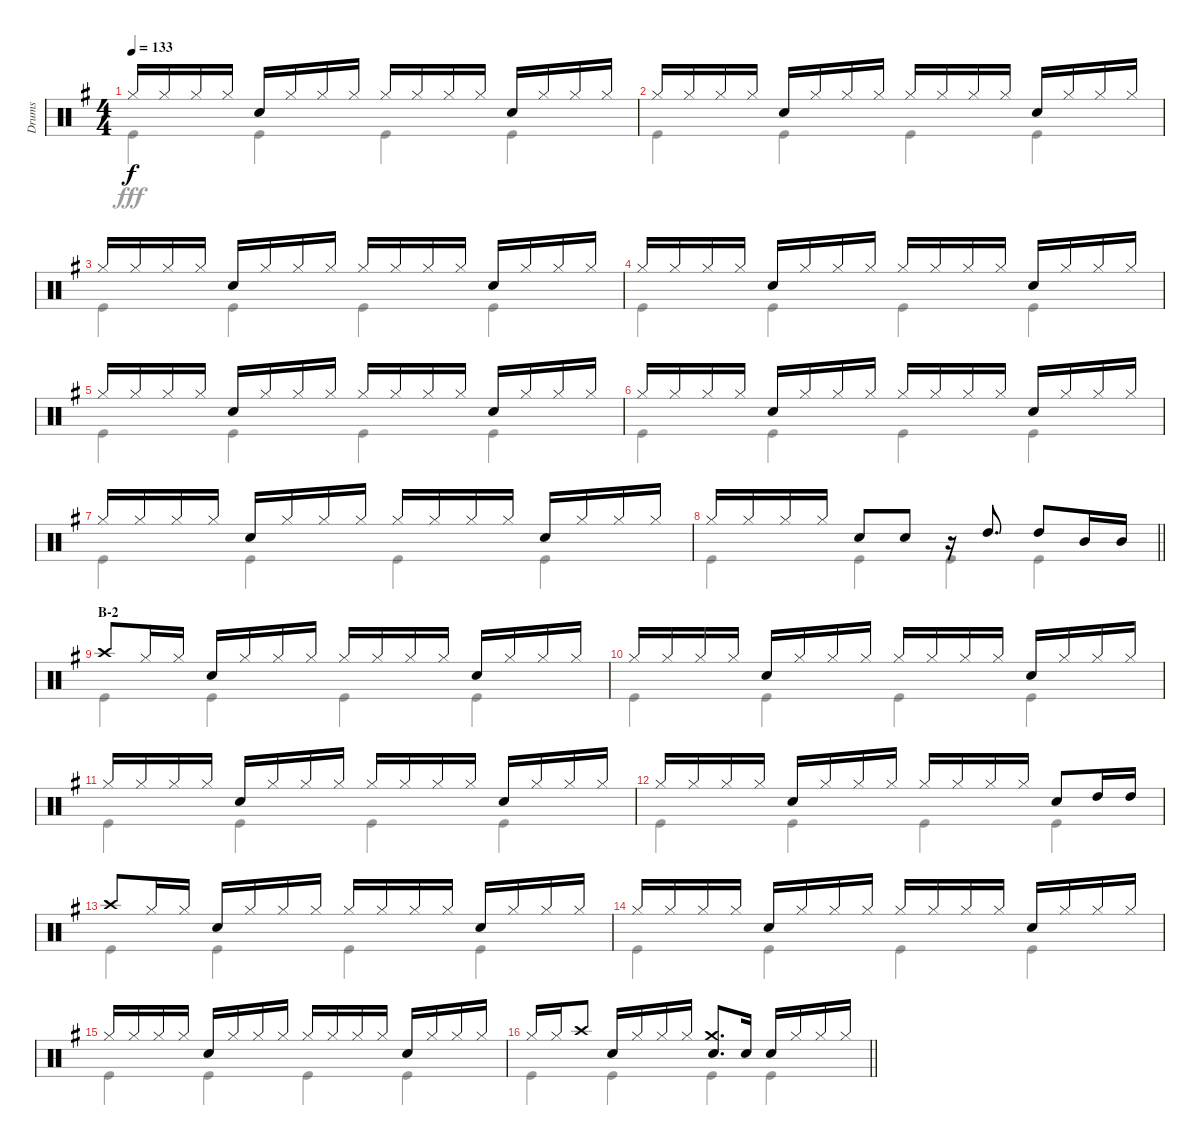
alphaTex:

\track ("Drums" "Drums") {instrument percussion}
\staff {score}
\articulation defaults
\voice
\ts (4 4)
\tempo 133
\clef neutral
\ks g "Hi-Hat (closed)".16{dy f} "Hi-Hat (closed)".16 "Hi-Hat (closed)".16 "Hi-Hat (closed)".16 "Snare (hit) 2".16 "Hi-Hat (closed)".16 "Hi-Hat (closed)".16 "Hi-Hat (closed)".16 "Hi-Hat (closed)".16 "Hi-Hat (closed)".16 "Hi-Hat (closed)".16 "Hi-Hat (closed)".16 "Snare (hit) 2".16 "Hi-Hat (closed)".16 "Hi-Hat (closed)".16 "Hi-Hat (closed)".16
|
"Hi-Hat (closed)".16 "Hi-Hat (closed)".16 "Hi-Hat (closed)".16 "Hi-Hat (closed)".16 "Snare (hit) 2".16 "Hi-Hat (closed)".16 "Hi-Hat (closed)".16 "Hi-Hat (closed)".16 "Hi-Hat (closed)".16 "Hi-Hat (closed)".16 "Hi-Hat (closed)".16 "Hi-Hat (closed)".16 "Snare (hit) 2".16 "Hi-Hat (closed)".16 "Hi-Hat (closed)".16 "Hi-Hat (closed)".16 |
"Hi-Hat (closed)".16 "Hi-Hat (closed)".16 "Hi-Hat (closed)".16 "Hi-Hat (closed)".16 "Snare (hit) 2".16 "Hi-Hat (closed)".16 "Hi-Hat (closed)".16 "Hi-Hat (closed)".16 "Hi-Hat (closed)".16 "Hi-Hat (closed)".16 "Hi-Hat (closed)".16 "Hi-Hat (closed)".16 "Snare (hit) 2".16 "Hi-Hat (closed)".16 "Hi-Hat (closed)".16 "Hi-Hat (closed)".16 |
"Hi-Hat (closed)".16 "Hi-Hat (closed)".16 "Hi-Hat (closed)".16 "Hi-Hat (closed)".16 "Snare (hit) 2".16 "Hi-Hat (closed)".16 "Hi-Hat (closed)".16 "Hi-Hat (closed)".16 "Hi-Hat (closed)".16 "Hi-Hat (closed)".16 "Hi-Hat (closed)".16 "Hi-Hat (closed)".16 "Snare (hit) 2".16 "Hi-Hat (closed)".16 "Hi-Hat (closed)".16 "Hi-Hat (closed)".16 |
"Hi-Hat (closed)".16 "Hi-Hat (closed)".16 "Hi-Hat (closed)".16 "Hi-Hat (closed)".16 "Snare (hit) 2".16 "Hi-Hat (closed)".16 "Hi-Hat (closed)".16 "Hi-Hat (closed)".16 "Hi-Hat (closed)".16 "Hi-Hat (closed)".16 "Hi-Hat (closed)".16 "Hi-Hat (closed)".16 "Snare (hit) 2".16 "Hi-Hat (closed)".16 "Hi-Hat (closed)".16 "Hi-Hat (closed)".16 |
"Hi-Hat (closed)".16 "Hi-Hat (closed)".16 "Hi-Hat (closed)".16 "Hi-Hat (closed)".16 "Snare (hit) 2".16 "Hi-Hat (closed)".16 "Hi-Hat (closed)".16 "Hi-Hat (closed)".16 "Hi-Hat (closed)".16 "Hi-Hat (closed)".16 "Hi-Hat (closed)".16 "Hi-Hat (closed)".16 "Snare (hit) 2".16 "Hi-Hat (closed)".16 "Hi-Hat (closed)".16 "Hi-Hat (closed)".16 |
"Hi-Hat (closed)".16 "Hi-Hat (closed)".16 "Hi-Hat (closed)".16 "Hi-Hat (closed)".16 "Snare (hit) 2".16 "Hi-Hat (closed)".16 "Hi-Hat (closed)".16 "Hi-Hat (closed)".16 "Hi-Hat (closed)".16 "Hi-Hat (closed)".16 "Hi-Hat (closed)".16 "Hi-Hat (closed)".16 "Snare (hit) 2".16 "Hi-Hat (closed)".16 "Hi-Hat (closed)".16 "Hi-Hat (closed)".16 |
\barLineRight lightlight "Hi-Hat (closed)".16 "Hi-Hat (closed)".16 "Hi-Hat (closed)".16 "Hi-Hat (closed)".16 "Snare (hit) 2".8 "Snare (hit) 2".8
r.16 "High Tom (hit)".8{d} "High Tom (hit)".8 "Mid Tom (hit)".16 "Mid Tom (hit)".16 |
\section ("" "B-2")
"Crash high (hit)".8 "Hi-Hat (closed)".16 "Hi-Hat (closed)".16 "Snare (hit) 2".16 "Hi-Hat (closed)".16 "Hi-Hat (closed)".16 "Hi-Hat (closed)".16 "Hi-Hat (closed)".16 "Hi-Hat (closed)".16 "Hi-Hat (closed)".16 "Hi-Hat (closed)".16 "Snare (hit) 2".16 "Hi-Hat (closed)".16 "Hi-Hat (closed)".16 "Hi-Hat (closed)".16 |
"Hi-Hat (closed)".16 "Hi-Hat (closed)".16 "Hi-Hat (closed)".16 "Hi-Hat (closed)".16 "Snare (hit) 2".16 "Hi-Hat (closed)".16 "Hi-Hat (closed)".16 "Hi-Hat (closed)".16 "Hi-Hat (closed)".16 "Hi-Hat (closed)".16 "Hi-Hat (closed)".16 "Hi-Hat (closed)".16 "Snare (hit) 2".16 "Hi-Hat (closed)".16 "Hi-Hat (closed)".16 "Hi-Hat (closed)".16 |
"Hi-Hat (closed)".16 "Hi-Hat (closed)".16 "Hi-Hat (closed)".16 "Hi-Hat (closed)".16 "Snare (hit) 2".16 "Hi-Hat (closed)".16 "Hi-Hat (closed)".16 "Hi-Hat (closed)".16 "Hi-Hat (closed)".16 "Hi-Hat (closed)".16 "Hi-Hat (closed)".16 "Hi-Hat (closed)".16 "Snare (hit) 2".16 "Hi-Hat (closed)".16 "Hi-Hat (closed)".16 "Hi-Hat (closed)".16 |
"Hi-Hat (closed)".16 "Hi-Hat (closed)".16 "Hi-Hat (closed)".16 "Hi-Hat (closed)".16 "Snare (hit) 2".16 "Hi-Hat (closed)".16 "Hi-Hat (closed)".16 "Hi-Hat (closed)".16 "Hi-Hat (closed)".16 "Hi-Hat (closed)".16 "Hi-Hat (closed)".16 "Hi-Hat (closed)".16 "Snare (hit) 2".8 "High Tom (hit)".16 "High Tom (hit)".16 |
"Crash high (hit)".8 "Hi-Hat (closed)".16 "Hi-Hat (closed)".16 "Snare (hit) 2".16 "Hi-Hat (closed)".16 "Hi-Hat (closed)".16 "Hi-Hat (closed)".16 "Hi-Hat (closed)".16 "Hi-Hat (closed)".16 "Hi-Hat (closed)".16 "Hi-Hat (closed)".16 "Snare (hit) 2".16 "Hi-Hat (closed)".16 "Hi-Hat (closed)".16 "Hi-Hat (closed)".16 |
"Hi-Hat (closed)".16 "Hi-Hat (closed)".16 "Hi-Hat (closed)".16 "Hi-Hat (closed)".16 "Snare (hit) 2".16 "Hi-Hat (closed)".16 "Hi-Hat (closed)".16 "Hi-Hat (closed)".16 "Hi-Hat (closed)".16 "Hi-Hat (closed)".16 "Hi-Hat (closed)".16 "Hi-Hat (closed)".16 "Snare (hit) 2".16 "Hi-Hat (closed)".16 "Hi-Hat (closed)".16 "Hi-Hat (closed)".16 |
"Hi-Hat (closed)".16 "Hi-Hat (closed)".16 "Hi-Hat (closed)".16 "Hi-Hat (closed)".16 "Snare (hit) 2".16 "Hi-Hat (closed)".16 "Hi-Hat (closed)".16 "Hi-Hat (closed)".16 "Hi-Hat (closed)".16 "Hi-Hat (closed)".16 "Hi-Hat (closed)".16 "Hi-Hat (closed)".16 "Snare (hit) 2".16 "Hi-Hat (closed)".16 "Hi-Hat (closed)".16 "Hi-Hat (closed)".16 |
\barLineRight lightlight "Hi-Hat (closed)".16 "Hi-Hat (closed)".16 "Crash high (hit)".8 "Snare (hit) 2".16 "Hi-Hat (closed)".16 "Hi-Hat (closed)".16 "Hi-Hat (closed)".16
("Crash medium (hit)" "Snare (hit) 2").8{d} "Snare (hit) 2".16 "Snare (hit) 2".16 "Hi-Hat (closed)".16 "Hi-Hat (closed)".16 "Hi-Hat (closed)".16
\voice
\clef neutral
\ottava regular
\simile none
\ks g "Kick (hit)".4{dy fff} "Kick (hit)".4 "Kick (hit)".4 "Kick (hit)".4
|
"Kick (hit)".4 "Kick (hit)".4 "Kick (hit)".4 "Kick (hit)".4 |
"Kick (hit)".4 "Kick (hit)".4 "Kick (hit)".4 "Kick (hit)".4 |
"Kick (hit)".4 "Kick (hit)".4 "Kick (hit)".4 "Kick (hit)".4 |
"Kick (hit)".4 "Kick (hit)".4 "Kick (hit)".4 "Kick (hit)".4 |
"Kick (hit)".4 "Kick (hit)".4 "Kick (hit)".4 "Kick (hit)".4 |
"Kick (hit)".4 "Kick (hit)".4 "Kick (hit)".4 "Kick (hit)".4 |
\barLineRight lightlight "Kick (hit)".4 "Kick (hit)".4 "Kick (hit)".4 "Kick (hit)".4
|
"Kick (hit)".4 "Kick (hit)".4 "Kick (hit)".4 "Kick (hit)".4 |
"Kick (hit)".4 "Kick (hit)".4 "Kick (hit)".4 "Kick (hit)".4 |
"Kick (hit)".4 "Kick (hit)".4 "Kick (hit)".4 "Kick (hit)".4 |
"Kick (hit)".4 "Kick (hit)".4 "Kick (hit)".4 "Kick (hit)".4 |
"Kick (hit)".4 "Kick (hit)".4 "Kick (hit)".4 "Kick (hit)".4 |
"Kick (hit)".4 "Kick (hit)".4 "Kick (hit)".4 "Kick (hit)".4 |
"Kick (hit)".4 "Kick (hit)".4 "Kick (hit)".4 "Kick (hit)".4 |
\barLineRight lightlight "Kick (hit)".4 "Kick (hit)".4 "Kick (hit)".4 "Kick (hit)".4
